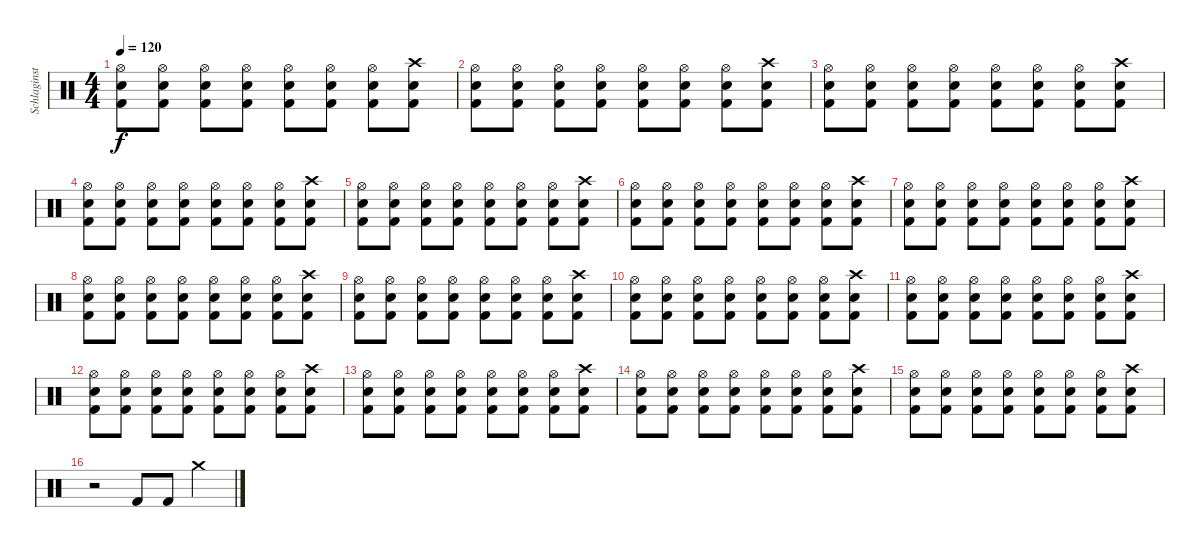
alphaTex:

\track ("Schlaginstrumente - Auswahl" "Schlaginst") {instrument percussion}
\staff {score}
\articulation defaults
\ts (4 4)
\tempo 120
\clef neutral
\ks c
("Hi-Hat (open)" "Snare (hit) 2" "Kick (hit) 2").8{dy f} ("Hi-Hat (open)" "Snare (hit) 2" "Kick (hit) 2").8 ("Hi-Hat (open)" "Snare (hit) 2" "Kick (hit) 2").8 ("Hi-Hat (open)" "Snare (hit) 2" "Kick (hit) 2").8 ("Hi-Hat (open)" "Snare (hit) 2" "Kick (hit) 2").8 ("Hi-Hat (open)" "Snare (hit) 2" "Kick (hit) 2").8 ("Hi-Hat (open)" "Snare (hit) 2" "Kick (hit) 2").8 ("Crash high (hit)" "Snare (hit) 2" "Kick (hit) 2").8 |
("Hi-Hat (open)" "Snare (hit) 2" "Kick (hit) 2").8 ("Hi-Hat (open)" "Snare (hit) 2" "Kick (hit) 2").8 ("Hi-Hat (open)" "Snare (hit) 2" "Kick (hit) 2").8 ("Hi-Hat (open)" "Snare (hit) 2" "Kick (hit) 2").8 ("Hi-Hat (open)" "Snare (hit) 2" "Kick (hit) 2").8 ("Hi-Hat (open)" "Snare (hit) 2" "Kick (hit) 2").8 ("Hi-Hat (open)" "Snare (hit) 2" "Kick (hit) 2").8 ("Crash high (hit)" "Snare (hit) 2" "Kick (hit) 2").8 |
("Hi-Hat (open)" "Snare (hit) 2" "Kick (hit) 2").8 ("Hi-Hat (open)" "Snare (hit) 2" "Kick (hit) 2").8 ("Hi-Hat (open)" "Snare (hit) 2" "Kick (hit) 2").8 ("Hi-Hat (open)" "Snare (hit) 2" "Kick (hit) 2").8 ("Hi-Hat (open)" "Snare (hit) 2" "Kick (hit) 2").8 ("Hi-Hat (open)" "Snare (hit) 2" "Kick (hit) 2").8 ("Hi-Hat (open)" "Snare (hit) 2" "Kick (hit) 2").8 ("Crash high (hit)" "Snare (hit) 2" "Kick (hit) 2").8 |
("Hi-Hat (open)" "Snare (hit) 2" "Kick (hit) 2").8 ("Hi-Hat (open)" "Snare (hit) 2" "Kick (hit) 2").8 ("Hi-Hat (open)" "Snare (hit) 2" "Kick (hit) 2").8 ("Hi-Hat (open)" "Snare (hit) 2" "Kick (hit) 2").8 ("Hi-Hat (open)" "Snare (hit) 2" "Kick (hit) 2").8 ("Hi-Hat (open)" "Snare (hit) 2" "Kick (hit) 2").8 ("Hi-Hat (open)" "Snare (hit) 2" "Kick (hit) 2").8 ("Crash high (hit)" "Snare (hit) 2" "Kick (hit) 2").8 |
("Hi-Hat (open)" "Snare (hit) 2" "Kick (hit) 2").8 ("Hi-Hat (open)" "Snare (hit) 2" "Kick (hit) 2").8 ("Hi-Hat (open)" "Snare (hit) 2" "Kick (hit) 2").8 ("Hi-Hat (open)" "Snare (hit) 2" "Kick (hit) 2").8 ("Hi-Hat (open)" "Snare (hit) 2" "Kick (hit) 2").8 ("Hi-Hat (open)" "Snare (hit) 2" "Kick (hit) 2").8 ("Hi-Hat (open)" "Snare (hit) 2" "Kick (hit) 2").8 ("Crash high (hit)" "Snare (hit) 2" "Kick (hit) 2").8 |
("Hi-Hat (open)" "Snare (hit) 2" "Kick (hit) 2").8 ("Hi-Hat (open)" "Snare (hit) 2" "Kick (hit) 2").8 ("Hi-Hat (open)" "Snare (hit) 2" "Kick (hit) 2").8 ("Hi-Hat (open)" "Snare (hit) 2" "Kick (hit) 2").8 ("Hi-Hat (open)" "Snare (hit) 2" "Kick (hit) 2").8 ("Hi-Hat (open)" "Snare (hit) 2" "Kick (hit) 2").8 ("Hi-Hat (open)" "Snare (hit) 2" "Kick (hit) 2").8 ("Crash high (hit)" "Snare (hit) 2" "Kick (hit) 2").8 |
("Hi-Hat (open)" "Snare (hit) 2" "Kick (hit) 2").8 ("Hi-Hat (open)" "Snare (hit) 2" "Kick (hit) 2").8 ("Hi-Hat (open)" "Snare (hit) 2" "Kick (hit) 2").8 ("Hi-Hat (open)" "Snare (hit) 2" "Kick (hit) 2").8 ("Hi-Hat (open)" "Snare (hit) 2" "Kick (hit) 2").8 ("Hi-Hat (open)" "Snare (hit) 2" "Kick (hit) 2").8 ("Hi-Hat (open)" "Snare (hit) 2" "Kick (hit) 2").8 ("Crash high (hit)" "Snare (hit) 2" "Kick (hit) 2").8 |
("Hi-Hat (open)" "Snare (hit) 2" "Kick (hit) 2").8 ("Hi-Hat (open)" "Snare (hit) 2" "Kick (hit) 2").8 ("Hi-Hat (open)" "Snare (hit) 2" "Kick (hit) 2").8 ("Hi-Hat (open)" "Snare (hit) 2" "Kick (hit) 2").8 ("Hi-Hat (open)" "Snare (hit) 2" "Kick (hit) 2").8 ("Hi-Hat (open)" "Snare (hit) 2" "Kick (hit) 2").8 ("Hi-Hat (open)" "Snare (hit) 2" "Kick (hit) 2").8 ("Crash high (hit)" "Snare (hit) 2" "Kick (hit) 2").8 |
("Hi-Hat (open)" "Snare (hit) 2" "Kick (hit) 2").8 ("Hi-Hat (open)" "Snare (hit) 2" "Kick (hit) 2").8 ("Hi-Hat (open)" "Snare (hit) 2" "Kick (hit) 2").8 ("Hi-Hat (open)" "Snare (hit) 2" "Kick (hit) 2").8 ("Hi-Hat (open)" "Snare (hit) 2" "Kick (hit) 2").8 ("Hi-Hat (open)" "Snare (hit) 2" "Kick (hit) 2").8 ("Hi-Hat (open)" "Snare (hit) 2" "Kick (hit) 2").8 ("Crash high (hit)" "Snare (hit) 2" "Kick (hit) 2").8 |
("Hi-Hat (open)" "Snare (hit) 2" "Kick (hit) 2").8 ("Hi-Hat (open)" "Snare (hit) 2" "Kick (hit) 2").8 ("Hi-Hat (open)" "Snare (hit) 2" "Kick (hit) 2").8 ("Hi-Hat (open)" "Snare (hit) 2" "Kick (hit) 2").8 ("Hi-Hat (open)" "Snare (hit) 2" "Kick (hit) 2").8 ("Hi-Hat (open)" "Snare (hit) 2" "Kick (hit) 2").8 ("Hi-Hat (open)" "Snare (hit) 2" "Kick (hit) 2").8 ("Crash high (hit)" "Snare (hit) 2" "Kick (hit) 2").8 |
("Hi-Hat (open)" "Snare (hit) 2" "Kick (hit) 2").8 ("Hi-Hat (open)" "Snare (hit) 2" "Kick (hit) 2").8 ("Hi-Hat (open)" "Snare (hit) 2" "Kick (hit) 2").8 ("Hi-Hat (open)" "Snare (hit) 2" "Kick (hit) 2").8 ("Hi-Hat (open)" "Snare (hit) 2" "Kick (hit) 2").8 ("Hi-Hat (open)" "Snare (hit) 2" "Kick (hit) 2").8 ("Hi-Hat (open)" "Snare (hit) 2" "Kick (hit) 2").8 ("Crash high (hit)" "Snare (hit) 2" "Kick (hit) 2").8 |
("Hi-Hat (open)" "Snare (hit) 2" "Kick (hit) 2").8 ("Hi-Hat (open)" "Snare (hit) 2" "Kick (hit) 2").8 ("Hi-Hat (open)" "Snare (hit) 2" "Kick (hit) 2").8 ("Hi-Hat (open)" "Snare (hit) 2" "Kick (hit) 2").8 ("Hi-Hat (open)" "Snare (hit) 2" "Kick (hit) 2").8 ("Hi-Hat (open)" "Snare (hit) 2" "Kick (hit) 2").8 ("Hi-Hat (open)" "Snare (hit) 2" "Kick (hit) 2").8 ("Crash high (hit)" "Snare (hit) 2" "Kick (hit) 2").8 |
("Hi-Hat (open)" "Snare (hit) 2" "Kick (hit) 2").8 ("Hi-Hat (open)" "Snare (hit) 2" "Kick (hit) 2").8 ("Hi-Hat (open)" "Snare (hit) 2" "Kick (hit) 2").8 ("Hi-Hat (open)" "Snare (hit) 2" "Kick (hit) 2").8 ("Hi-Hat (open)" "Snare (hit) 2" "Kick (hit) 2").8 ("Hi-Hat (open)" "Snare (hit) 2" "Kick (hit) 2").8 ("Hi-Hat (open)" "Snare (hit) 2" "Kick (hit) 2").8 ("Crash high (hit)" "Snare (hit) 2" "Kick (hit) 2").8 |
("Hi-Hat (open)" "Snare (hit) 2" "Kick (hit) 2").8 ("Hi-Hat (open)" "Snare (hit) 2" "Kick (hit) 2").8 ("Hi-Hat (open)" "Snare (hit) 2" "Kick (hit) 2").8 ("Hi-Hat (open)" "Snare (hit) 2" "Kick (hit) 2").8 ("Hi-Hat (open)" "Snare (hit) 2" "Kick (hit) 2").8 ("Hi-Hat (open)" "Snare (hit) 2" "Kick (hit) 2").8 ("Hi-Hat (open)" "Snare (hit) 2" "Kick (hit) 2").8 ("Crash high (hit)" "Snare (hit) 2" "Kick (hit) 2").8 |
("Hi-Hat (open)" "Snare (hit) 2" "Kick (hit) 2").8 ("Hi-Hat (open)" "Snare (hit) 2" "Kick (hit) 2").8 ("Hi-Hat (open)" "Snare (hit) 2" "Kick (hit) 2").8 ("Hi-Hat (open)" "Snare (hit) 2" "Kick (hit) 2").8 ("Hi-Hat (open)" "Snare (hit) 2" "Kick (hit) 2").8 ("Hi-Hat (open)" "Snare (hit) 2" "Kick (hit) 2").8 ("Hi-Hat (open)" "Snare (hit) 2" "Kick (hit) 2").8 ("Crash high (hit)" "Snare (hit) 2" "Kick (hit) 2").8 |
r.2 "Kick (hit) 2".8 "Kick (hit) 2".8 "Crash medium (hit)".4
